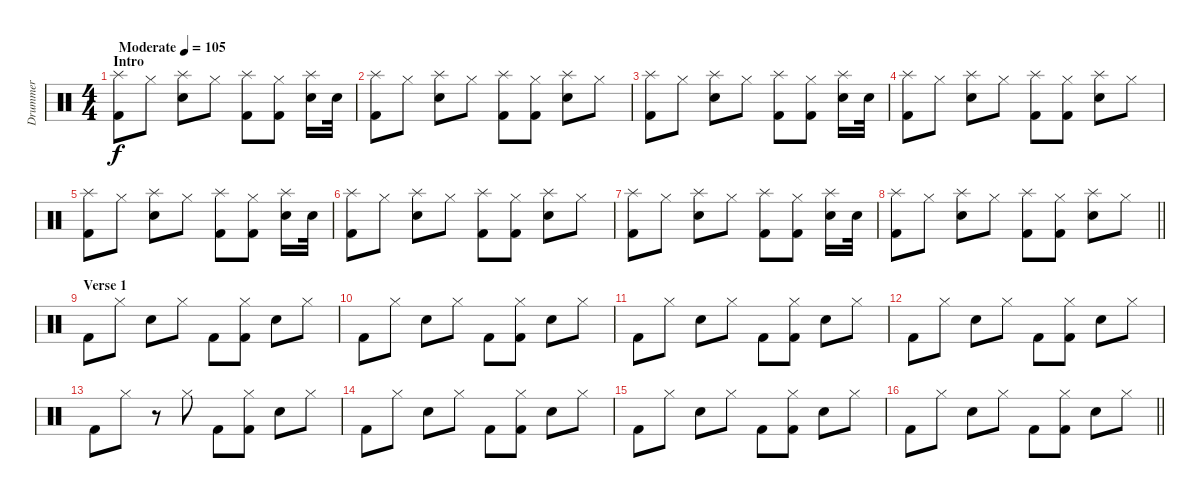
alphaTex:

\track ("Drummer" "Drummer") {instrument percussion}
\staff {score}
\articulation defaults
\ts (4 4)
\section ("" "Intro")
\tempo (105 "Moderate")
\clef neutral
\ks c
("Splash (hit)" "Kick (hit) 2").8{dy f} "Hi-Hat (closed)".8 ("Splash (hit)" "Snare (hit) 2").8 "Hi-Hat (closed)".8 ("Splash (hit)" "Kick (hit) 2").8 ("Hi-Hat (closed)" "Kick (hit) 2").8 ("Splash (hit)" "Snare (hit) 2").16 "Snare (hit) 2".32 |
("Splash (hit)" "Kick (hit) 2").8 "Hi-Hat (closed)".8 ("Splash (hit)" "Snare (hit) 2").8 "Hi-Hat (closed)".8 ("Splash (hit)" "Kick (hit) 2").8 ("Hi-Hat (closed)" "Kick (hit) 2").8 ("Splash (hit)" "Snare (hit) 2").8 "Hi-Hat (closed)".8 |
("Splash (hit)" "Kick (hit) 2").8 "Hi-Hat (closed)".8 ("Splash (hit)" "Snare (hit) 2").8 "Hi-Hat (closed)".8 ("Splash (hit)" "Kick (hit) 2").8 ("Hi-Hat (closed)" "Kick (hit) 2").8 ("Splash (hit)" "Snare (hit) 2").16 "Snare (hit) 2".32 |
("Splash (hit)" "Kick (hit) 2").8 "Hi-Hat (closed)".8 ("Splash (hit)" "Snare (hit) 2").8 "Hi-Hat (closed)".8 ("Splash (hit)" "Kick (hit) 2").8 ("Hi-Hat (closed)" "Kick (hit) 2").8 ("Splash (hit)" "Snare (hit) 2").8 "Hi-Hat (closed)".8 |
("Splash (hit)" "Kick (hit) 2").8 "Hi-Hat (closed)".8 ("Splash (hit)" "Snare (hit) 2").8 "Hi-Hat (closed)".8 ("Splash (hit)" "Kick (hit) 2").8 ("Hi-Hat (closed)" "Kick (hit) 2").8 ("Splash (hit)" "Snare (hit) 2").16 "Snare (hit) 2".32 |
("Splash (hit)" "Kick (hit) 2").8 "Hi-Hat (closed)".8 ("Splash (hit)" "Snare (hit) 2").8 "Hi-Hat (closed)".8 ("Splash (hit)" "Kick (hit) 2").8 ("Hi-Hat (closed)" "Kick (hit) 2").8 ("Splash (hit)" "Snare (hit) 2").8 "Hi-Hat (closed)".8 |
("Splash (hit)" "Kick (hit) 2").8 "Hi-Hat (closed)".8 ("Splash (hit)" "Snare (hit) 2").8 "Hi-Hat (closed)".8 ("Splash (hit)" "Kick (hit) 2").8 ("Hi-Hat (closed)" "Kick (hit) 2").8 ("Splash (hit)" "Snare (hit) 2").16 "Snare (hit) 2".32 |
\barLineRight lightlight
("Splash (hit)" "Kick (hit) 2").8 "Hi-Hat (closed)".8 ("Splash (hit)" "Snare (hit) 2").8 "Hi-Hat (closed)".8 ("Splash (hit)" "Kick (hit) 2").8 ("Hi-Hat (closed)" "Kick (hit) 2").8 ("Splash (hit)" "Snare (hit) 2").8 "Hi-Hat (closed)".8 |
\section ("" "Verse 1")
"Kick (hit) 2".8 "Hi-Hat (closed)".8 "Snare (hit) 2".8 "Hi-Hat (closed)".8 "Kick (hit) 2".8 ("Hi-Hat (closed)" "Kick (hit) 2").8 "Snare (hit) 2".8 "Hi-Hat (closed)".8 |
"Kick (hit) 2".8 "Hi-Hat (closed)".8 "Snare (hit) 2".8 "Hi-Hat (closed)".8 "Kick (hit) 2".8 ("Hi-Hat (closed)" "Kick (hit) 2").8 "Snare (hit) 2".8 "Hi-Hat (closed)".8 |
"Kick (hit) 2".8 "Hi-Hat (closed)".8 "Snare (hit) 2".8 "Hi-Hat (closed)".8 "Kick (hit) 2".8 ("Hi-Hat (closed)" "Kick (hit) 2").8 "Snare (hit) 2".8 "Hi-Hat (closed)".8 |
"Kick (hit) 2".8 "Hi-Hat (closed)".8 "Snare (hit) 2".8 "Hi-Hat (closed)".8 "Kick (hit) 2".8 ("Hi-Hat (closed)" "Kick (hit) 2").8 "Snare (hit) 2".8 "Hi-Hat (closed)".8 |
"Kick (hit) 2".8 "Hi-Hat (closed)".8 r.8 "Hi-Hat (closed)".8 "Kick (hit) 2".8 ("Hi-Hat (closed)" "Kick (hit) 2").8 "Snare (hit) 2".8 "Hi-Hat (closed)".8 |
"Kick (hit) 2".8 "Hi-Hat (closed)".8 "Snare (hit) 2".8 "Hi-Hat (closed)".8 "Kick (hit) 2".8 ("Hi-Hat (closed)" "Kick (hit) 2").8 "Snare (hit) 2".8 "Hi-Hat (closed)".8 |
"Kick (hit) 2".8 "Hi-Hat (closed)".8 "Snare (hit) 2".8 "Hi-Hat (closed)".8 "Kick (hit) 2".8 ("Hi-Hat (closed)" "Kick (hit) 2").8 "Snare (hit) 2".8 "Hi-Hat (closed)".8 |
\barLineRight lightlight "Kick (hit) 2".8 "Hi-Hat (closed)".8 "Snare (hit) 2".8 "Hi-Hat (closed)".8 "Kick (hit) 2".8
("Hi-Hat (closed)" "Kick (hit) 2").8 "Snare (hit) 2".8 "Hi-Hat (closed)".8
